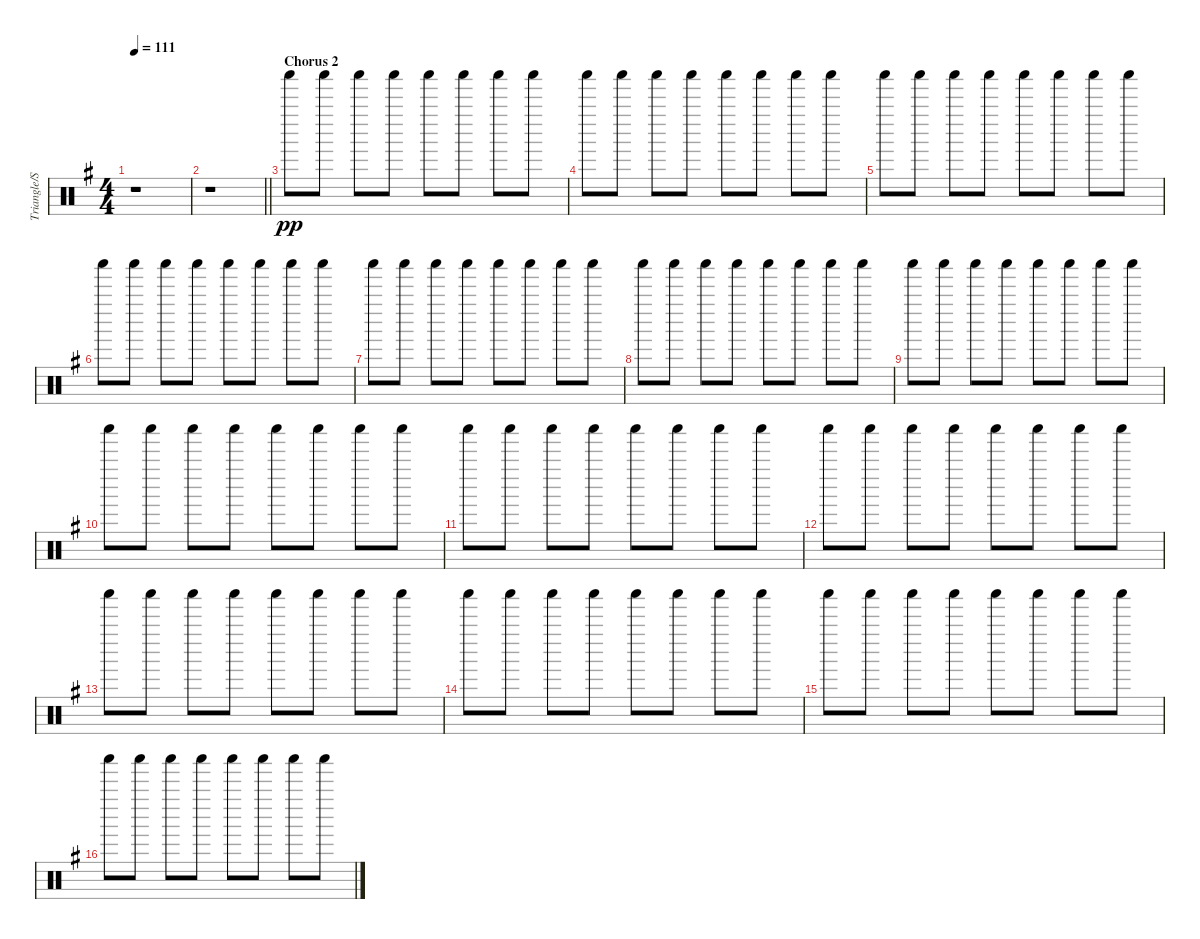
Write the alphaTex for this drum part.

\track ("Triangle/Shaker" "Triangle/S") {instrument percussion}
\staff {score}
\articulation defaults
\ts (4 4)
\tempo 111
\clef neutral
\ks g
r.1{dy pp} |
\barLineRight lightlight
r.1 |
\section ("" "Chorus 2")
"Shaker (hit)".8 "Shaker (hit)".8 "Shaker (hit)".8 "Shaker (hit)".8 "Shaker (hit)".8 "Shaker (hit)".8 "Shaker (hit)".8 "Shaker (hit)".8 |
"Shaker (hit)".8 "Shaker (hit)".8 "Shaker (hit)".8 "Shaker (hit)".8 "Shaker (hit)".8 "Shaker (hit)".8 "Shaker (hit)".8 "Shaker (hit)".8 |
"Shaker (hit)".8 "Shaker (hit)".8 "Shaker (hit)".8 "Shaker (hit)".8 "Shaker (hit)".8 "Shaker (hit)".8 "Shaker (hit)".8 "Shaker (hit)".8 |
"Shaker (hit)".8 "Shaker (hit)".8 "Shaker (hit)".8 "Shaker (hit)".8 "Shaker (hit)".8 "Shaker (hit)".8 "Shaker (hit)".8 "Shaker (hit)".8 |
"Shaker (hit)".8 "Shaker (hit)".8 "Shaker (hit)".8 "Shaker (hit)".8 "Shaker (hit)".8 "Shaker (hit)".8 "Shaker (hit)".8 "Shaker (hit)".8 |
"Shaker (hit)".8 "Shaker (hit)".8 "Shaker (hit)".8 "Shaker (hit)".8 "Shaker (hit)".8 "Shaker (hit)".8 "Shaker (hit)".8 "Shaker (hit)".8 |
"Shaker (hit)".8 "Shaker (hit)".8 "Shaker (hit)".8 "Shaker (hit)".8 "Shaker (hit)".8 "Shaker (hit)".8 "Shaker (hit)".8 "Shaker (hit)".8 |
"Shaker (hit)".8 "Shaker (hit)".8 "Shaker (hit)".8 "Shaker (hit)".8 "Shaker (hit)".8 "Shaker (hit)".8 "Shaker (hit)".8 "Shaker (hit)".8 |
"Shaker (hit)".8 "Shaker (hit)".8 "Shaker (hit)".8 "Shaker (hit)".8 "Shaker (hit)".8 "Shaker (hit)".8 "Shaker (hit)".8 "Shaker (hit)".8 |
"Shaker (hit)".8 "Shaker (hit)".8 "Shaker (hit)".8 "Shaker (hit)".8 "Shaker (hit)".8 "Shaker (hit)".8 "Shaker (hit)".8 "Shaker (hit)".8 |
"Shaker (hit)".8 "Shaker (hit)".8 "Shaker (hit)".8 "Shaker (hit)".8 "Shaker (hit)".8 "Shaker (hit)".8 "Shaker (hit)".8 "Shaker (hit)".8 |
"Shaker (hit)".8 "Shaker (hit)".8 "Shaker (hit)".8 "Shaker (hit)".8 "Shaker (hit)".8 "Shaker (hit)".8 "Shaker (hit)".8 "Shaker (hit)".8 |
"Shaker (hit)".8 "Shaker (hit)".8 "Shaker (hit)".8 "Shaker (hit)".8 "Shaker (hit)".8 "Shaker (hit)".8 "Shaker (hit)".8 "Shaker (hit)".8 |
"Shaker (hit)".8 "Shaker (hit)".8 "Shaker (hit)".8 "Shaker (hit)".8 "Shaker (hit)".8 "Shaker (hit)".8 "Shaker (hit)".8 "Shaker (hit)".8
